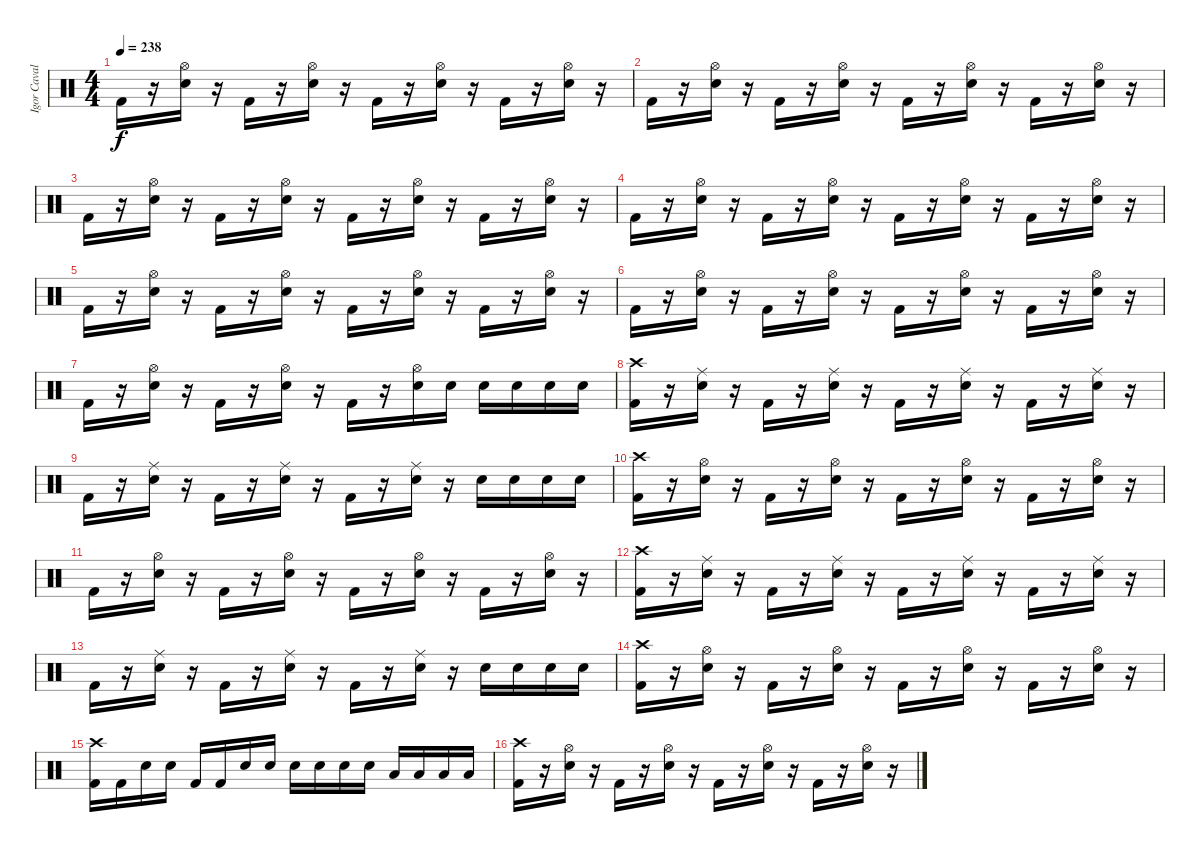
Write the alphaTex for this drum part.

\track ("Igor Cavalera" "Igor Caval") {instrument percussion}
\staff {score}
\articulation defaults
\ts (4 4)
\tempo 238
\clef neutral
\ks c "Kick (hit) 2".16{dy f}
r.16 ("Snare (hit) 2" "Hi-Hat (open)").16 r.16 "Kick (hit) 2".16 r.16 ("Snare (hit) 2" "Hi-Hat (open)").16 r.16 "Kick (hit) 2".16 r.16 ("Snare (hit) 2" "Hi-Hat (open)").16 r.16 "Kick (hit) 2".16 r.16 ("Snare (hit) 2" "Hi-Hat (open)").16 r.16 |
"Kick (hit) 2".16 r.16 ("Snare (hit) 2" "Hi-Hat (open)").16 r.16 "Kick (hit) 2".16 r.16 ("Snare (hit) 2" "Hi-Hat (open)").16 r.16 "Kick (hit) 2".16 r.16 ("Snare (hit) 2" "Hi-Hat (open)").16 r.16 "Kick (hit) 2".16 r.16 ("Snare (hit) 2" "Hi-Hat (open)").16 r.16 |
"Kick (hit) 2".16 r.16 ("Snare (hit) 2" "Hi-Hat (open)").16 r.16 "Kick (hit) 2".16 r.16 ("Snare (hit) 2" "Hi-Hat (open)").16 r.16 "Kick (hit) 2".16 r.16 ("Snare (hit) 2" "Hi-Hat (open)").16 r.16 "Kick (hit) 2".16 r.16 ("Snare (hit) 2" "Hi-Hat (open)").16 r.16 |
"Kick (hit) 2".16 r.16 ("Snare (hit) 2" "Hi-Hat (open)").16 r.16 "Kick (hit) 2".16 r.16 ("Snare (hit) 2" "Hi-Hat (open)").16 r.16 "Kick (hit) 2".16 r.16 ("Snare (hit) 2" "Hi-Hat (open)").16 r.16 "Kick (hit) 2".16 r.16 ("Snare (hit) 2" "Hi-Hat (open)").16 r.16 |
"Kick (hit) 2".16 r.16 ("Snare (hit) 2" "Hi-Hat (open)").16 r.16 "Kick (hit) 2".16 r.16 ("Snare (hit) 2" "Hi-Hat (open)").16 r.16 "Kick (hit) 2".16 r.16 ("Snare (hit) 2" "Hi-Hat (open)").16 r.16 "Kick (hit) 2".16 r.16 ("Snare (hit) 2" "Hi-Hat (open)").16 r.16 |
"Kick (hit) 2".16 r.16 ("Snare (hit) 2" "Hi-Hat (open)").16 r.16 "Kick (hit) 2".16 r.16 ("Snare (hit) 2" "Hi-Hat (open)").16 r.16 "Kick (hit) 2".16 r.16 ("Snare (hit) 2" "Hi-Hat (open)").16 r.16 "Kick (hit) 2".16 r.16 ("Snare (hit) 2" "Hi-Hat (open)").16 r.16 |
"Kick (hit) 2".16 r.16 ("Snare (hit) 2" "Hi-Hat (open)").16 r.16 "Kick (hit) 2".16 r.16 ("Snare (hit) 2" "Hi-Hat (open)").16 r.16 "Kick (hit) 2".16 r.16 ("Snare (hit) 2" "Hi-Hat (open)").16 "Snare (hit) 2".16 "Snare (hit) 2".16 "Snare (hit) 2".16 "Snare (hit) 2".16 "Snare (hit) 2".16 |
("Kick (hit) 2" "Crash high (hit)").16 r.16 ("Snare (hit) 2" "Ride (middle)").16 r.16 "Kick (hit) 2".16 r.16 ("Snare (hit) 2" "Ride (middle)").16 r.16 "Kick (hit) 2".16 r.16 ("Snare (hit) 2" "Ride (middle)").16 r.16 "Kick (hit) 2".16 r.16 ("Snare (hit) 2" "Ride (middle)").16 r.16 |
"Kick (hit) 2".16 r.16 ("Snare (hit) 2" "Ride (middle)").16 r.16 "Kick (hit) 2".16 r.16 ("Snare (hit) 2" "Ride (middle)").16 r.16 "Kick (hit) 2".16 r.16 ("Snare (hit) 2" "Ride (middle)").16 r.16 "Snare (hit) 2".16 "Snare (hit) 2".16 "Snare (hit) 2".16 "Snare (hit) 2".16 |
("Kick (hit) 2" "Crash high (hit)").16 r.16 ("Snare (hit) 2" "Hi-Hat (open)").16 r.16 "Kick (hit) 2".16 r.16 ("Snare (hit) 2" "Hi-Hat (open)").16 r.16 "Kick (hit) 2".16 r.16 ("Snare (hit) 2" "Hi-Hat (open)").16 r.16 "Kick (hit) 2".16 r.16 ("Snare (hit) 2" "Hi-Hat (open)").16 r.16 |
"Kick (hit) 2".16 r.16 ("Snare (hit) 2" "Hi-Hat (open)").16 r.16 "Kick (hit) 2".16 r.16 ("Snare (hit) 2" "Hi-Hat (open)").16 r.16 "Kick (hit) 2".16 r.16 ("Snare (hit) 2" "Hi-Hat (open)").16 r.16 "Kick (hit) 2".16 r.16 ("Snare (hit) 2" "Hi-Hat (open)").16 r.16 |
("Kick (hit) 2" "Crash high (hit)").16 r.16 ("Snare (hit) 2" "Ride (middle)").16 r.16 "Kick (hit) 2".16 r.16 ("Snare (hit) 2" "Ride (middle)").16 r.16 "Kick (hit) 2".16 r.16 ("Snare (hit) 2" "Ride (middle)").16 r.16 "Kick (hit) 2".16 r.16 ("Snare (hit) 2" "Ride (middle)").16 r.16 |
"Kick (hit) 2".16 r.16 ("Snare (hit) 2" "Ride (middle)").16 r.16 "Kick (hit) 2".16 r.16 ("Snare (hit) 2" "Ride (middle)").16 r.16 "Kick (hit) 2".16 r.16 ("Snare (hit) 2" "Ride (middle)").16 r.16 "Snare (hit) 2".16 "Snare (hit) 2".16 "Snare (hit) 2".16 "Snare (hit) 2".16 |
("Kick (hit) 2" "Crash high (hit)").16 r.16 ("Snare (hit) 2" "Hi-Hat (open)").16 r.16 "Kick (hit) 2".16 r.16 ("Snare (hit) 2" "Hi-Hat (open)").16 r.16 "Kick (hit) 2".16 r.16 ("Snare (hit) 2" "Hi-Hat (open)").16 r.16 "Kick (hit) 2".16 r.16 ("Snare (hit) 2" "Hi-Hat (open)").16 r.16 |
("Kick (hit) 2" "Crash high (hit)").16 "Kick (hit) 2".16 "Snare (hit) 2".16 "Snare (hit) 2".16 "Kick (hit) 2".16 "Kick (hit) 2".16 "Snare (hit) 2".16 "Snare (hit) 2".16 "Snare (hit) 2".16 "Snare (hit) 2".16 "Snare (hit) 2".16 "Snare (hit) 2".16 "Low Tom (hit)".16 "Low Tom (hit)".16 "Low Floor Tom (hit)".16 "Low Floor Tom (hit)".16 |
("Crash high (hit)" "Kick (hit) 2").16 r.16 ("Snare (hit) 2" "Hi-Hat (open)").16 r.16 "Kick (hit) 2".16 r.16 ("Snare (hit) 2" "Hi-Hat (open)").16 r.16 "Kick (hit) 2".16 r.16 ("Snare (hit) 2" "Hi-Hat (open)").16 r.16 "Kick (hit) 2".16 r.16 ("Snare (hit) 2" "Hi-Hat (open)").16 r.16
